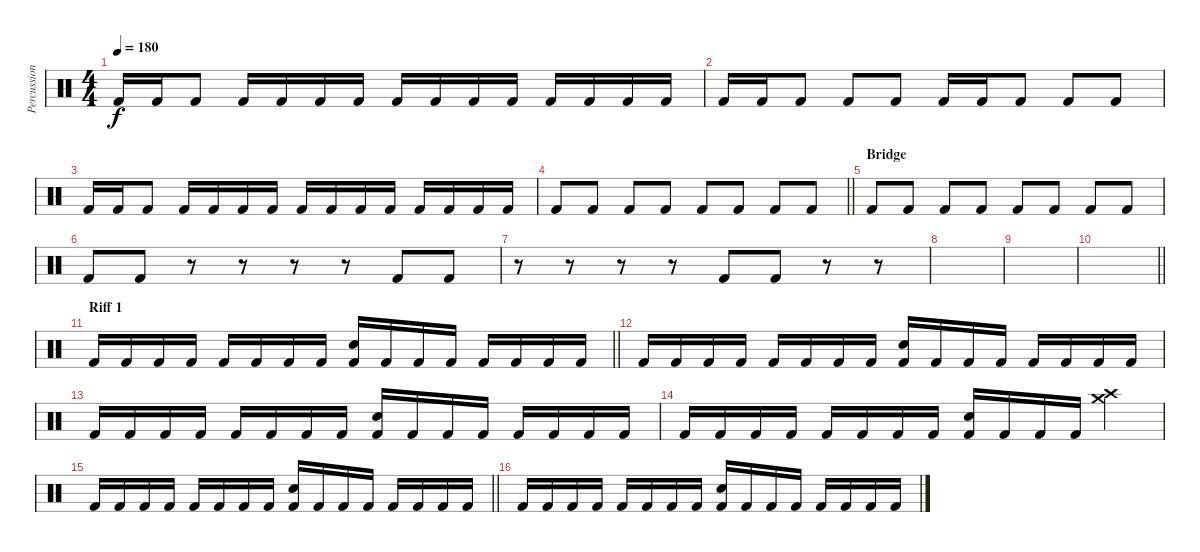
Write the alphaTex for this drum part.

\track ("Percussion" "Percussion") {instrument percussion}
\staff {score}
\articulation defaults
\ts (4 4)
\tempo 180
\clef neutral
\ks c "Kick (hit) 2".16{dy f} "Kick (hit) 2".16 "Kick (hit) 2".8 "Kick (hit) 2".16 "Kick (hit) 2".16 "Kick (hit) 2".16 "Kick (hit) 2".16 "Kick (hit) 2".16 "Kick (hit) 2".16 "Kick (hit) 2".16 "Kick (hit) 2".16 "Kick (hit) 2".16 "Kick (hit) 2".16 "Kick (hit) 2".16 "Kick (hit) 2".16
|
"Kick (hit) 2".16 "Kick (hit) 2".16 "Kick (hit) 2".8 "Kick (hit) 2".8 "Kick (hit) 2".8 "Kick (hit) 2".16 "Kick (hit) 2".16 "Kick (hit) 2".8 "Kick (hit) 2".8 "Kick (hit) 2".8 |
"Kick (hit) 2".16 "Kick (hit) 2".16 "Kick (hit) 2".8 "Kick (hit) 2".16 "Kick (hit) 2".16 "Kick (hit) 2".16 "Kick (hit) 2".16 "Kick (hit) 2".16 "Kick (hit) 2".16 "Kick (hit) 2".16 "Kick (hit) 2".16 "Kick (hit) 2".16 "Kick (hit) 2".16 "Kick (hit) 2".16 "Kick (hit) 2".16 |
\barLineRight lightlight "Kick (hit) 2".8 "Kick (hit) 2".8 "Kick (hit) 2".8 "Kick (hit) 2".8 "Kick (hit) 2".8 "Kick (hit) 2".8 "Kick (hit) 2".8 "Kick (hit) 2".8
|
\section ("" "Bridge")
"Kick (hit) 2".8 "Kick (hit) 2".8 "Kick (hit) 2".8 "Kick (hit) 2".8 "Kick (hit) 2".8 "Kick (hit) 2".8 "Kick (hit) 2".8 "Kick (hit) 2".8 |
"Kick (hit) 2".8 "Kick (hit) 2".8 r.8 r.8 r.8 r.8 "Kick (hit) 2".8 "Kick (hit) 2".8 |
r.8 r.8 r.8 r.8 "Kick (hit) 2".8 "Kick (hit) 2".8 r.8 r.8 |
|
|
\barLineRight lightlight
|
\section ("" "Riff 1")
\barLineRight lightlight "Kick (hit) 2".16 "Kick (hit) 2".16 "Kick (hit) 2".16 "Kick (hit) 2".16 "Kick (hit) 2".16 "Kick (hit) 2".16 "Kick (hit) 2".16 "Kick (hit) 2".16
("Kick (hit) 2" "Electric Snare (hit)").16 "Kick (hit) 2".16 "Kick (hit) 2".16 "Kick (hit) 2".16 "Kick (hit) 2".16 "Kick (hit) 2".16 "Kick (hit) 2".16 "Kick (hit) 2".16 |
"Kick (hit) 2".16 "Kick (hit) 2".16 "Kick (hit) 2".16 "Kick (hit) 2".16 "Kick (hit) 2".16 "Kick (hit) 2".16 "Kick (hit) 2".16 "Kick (hit) 2".16 ("Kick (hit) 2" "Electric Snare (hit)").16 "Kick (hit) 2".16 "Kick (hit) 2".16 "Kick (hit) 2".16 "Kick (hit) 2".16 "Kick (hit) 2".16 "Kick (hit) 2".16 "Kick (hit) 2".16 |
"Kick (hit) 2".16 "Kick (hit) 2".16 "Kick (hit) 2".16 "Kick (hit) 2".16 "Kick (hit) 2".16 "Kick (hit) 2".16 "Kick (hit) 2".16 "Kick (hit) 2".16 ("Kick (hit) 2" "Electric Snare (hit)").16 "Kick (hit) 2".16 "Kick (hit) 2".16 "Kick (hit) 2".16 "Kick (hit) 2".16 "Kick (hit) 2".16 "Kick (hit) 2".16 "Kick (hit) 2".16 |
"Kick (hit) 2".16 "Kick (hit) 2".16 "Kick (hit) 2".16 "Kick (hit) 2".16 "Kick (hit) 2".16 "Kick (hit) 2".16 "Kick (hit) 2".16 "Kick (hit) 2".16 ("Kick (hit) 2" "Electric Snare (hit)").16 "Kick (hit) 2".16 "Kick (hit) 2".16 "Kick (hit) 2".16 ("Crash high (hit)" "Crash medium (hit)").4 |
\barLineRight lightlight "Kick (hit) 2".16 "Kick (hit) 2".16 "Kick (hit) 2".16 "Kick (hit) 2".16 "Kick (hit) 2".16 "Kick (hit) 2".16 "Kick (hit) 2".16 "Kick (hit) 2".16
("Kick (hit) 2" "Electric Snare (hit)").16 "Kick (hit) 2".16 "Kick (hit) 2".16 "Kick (hit) 2".16 "Kick (hit) 2".16 "Kick (hit) 2".16 "Kick (hit) 2".16 "Kick (hit) 2".16 |
"Kick (hit) 2".16 "Kick (hit) 2".16 "Kick (hit) 2".16 "Kick (hit) 2".16 "Kick (hit) 2".16 "Kick (hit) 2".16 "Kick (hit) 2".16 "Kick (hit) 2".16 ("Kick (hit) 2" "Electric Snare (hit)").16 "Kick (hit) 2".16 "Kick (hit) 2".16 "Kick (hit) 2".16 "Kick (hit) 2".16 "Kick (hit) 2".16 "Kick (hit) 2".16 "Kick (hit) 2".16
